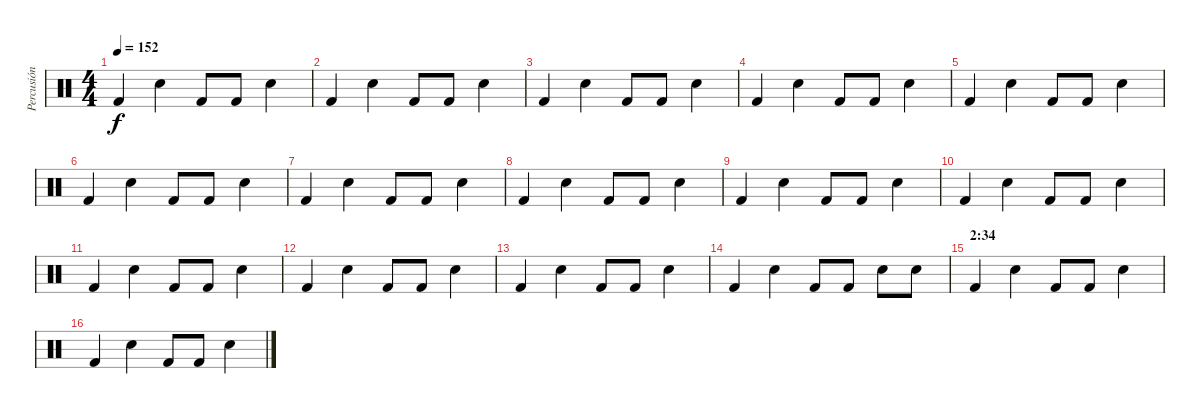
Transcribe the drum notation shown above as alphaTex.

\track ("Percusión" "Percusión") {instrument percussion}
\staff {score}
\articulation defaults
\ts (4 4)
\tempo 152
\clef neutral
\ks c "Kick (hit) 2".4{dy f} "Snare (hit) 2".4 "Kick (hit) 2".8 "Kick (hit) 2".8 "Snare (hit) 2".4
|
"Kick (hit) 2".4 "Snare (hit) 2".4 "Kick (hit) 2".8 "Kick (hit) 2".8 "Snare (hit) 2".4 |
"Kick (hit) 2".4 "Snare (hit) 2".4 "Kick (hit) 2".8 "Kick (hit) 2".8 "Snare (hit) 2".4 |
"Kick (hit) 2".4 "Snare (hit) 2".4 "Kick (hit) 2".8 "Kick (hit) 2".8 "Snare (hit) 2".4 |
"Kick (hit) 2".4 "Snare (hit) 2".4 "Kick (hit) 2".8 "Kick (hit) 2".8 "Snare (hit) 2".4 |
"Kick (hit) 2".4 "Snare (hit) 2".4 "Kick (hit) 2".8 "Kick (hit) 2".8 "Snare (hit) 2".4 |
"Kick (hit) 2".4 "Snare (hit) 2".4 "Kick (hit) 2".8 "Kick (hit) 2".8 "Snare (hit) 2".4 |
"Kick (hit) 2".4 "Snare (hit) 2".4 "Kick (hit) 2".8 "Kick (hit) 2".8 "Snare (hit) 2".4 |
"Kick (hit) 2".4 "Snare (hit) 2".4 "Kick (hit) 2".8 "Kick (hit) 2".8 "Snare (hit) 2".4 |
"Kick (hit) 2".4 "Snare (hit) 2".4 "Kick (hit) 2".8 "Kick (hit) 2".8 "Snare (hit) 2".4 |
"Kick (hit) 2".4 "Snare (hit) 2".4 "Kick (hit) 2".8 "Kick (hit) 2".8 "Snare (hit) 2".4 |
"Kick (hit) 2".4 "Snare (hit) 2".4 "Kick (hit) 2".8 "Kick (hit) 2".8 "Snare (hit) 2".4 |
"Kick (hit) 2".4 "Snare (hit) 2".4 "Kick (hit) 2".8 "Kick (hit) 2".8 "Snare (hit) 2".4 |
"Kick (hit) 2".4 "Snare (hit) 2".4 "Kick (hit) 2".8 "Kick (hit) 2".8 "Snare (hit) 2".8 "Snare (hit) 2".8 |
\section ("" "2:34")
"Kick (hit) 2".4 "Snare (hit) 2".4 "Kick (hit) 2".8 "Kick (hit) 2".8 "Snare (hit) 2".4 |
"Kick (hit) 2".4 "Snare (hit) 2".4 "Kick (hit) 2".8 "Kick (hit) 2".8 "Snare (hit) 2".4
